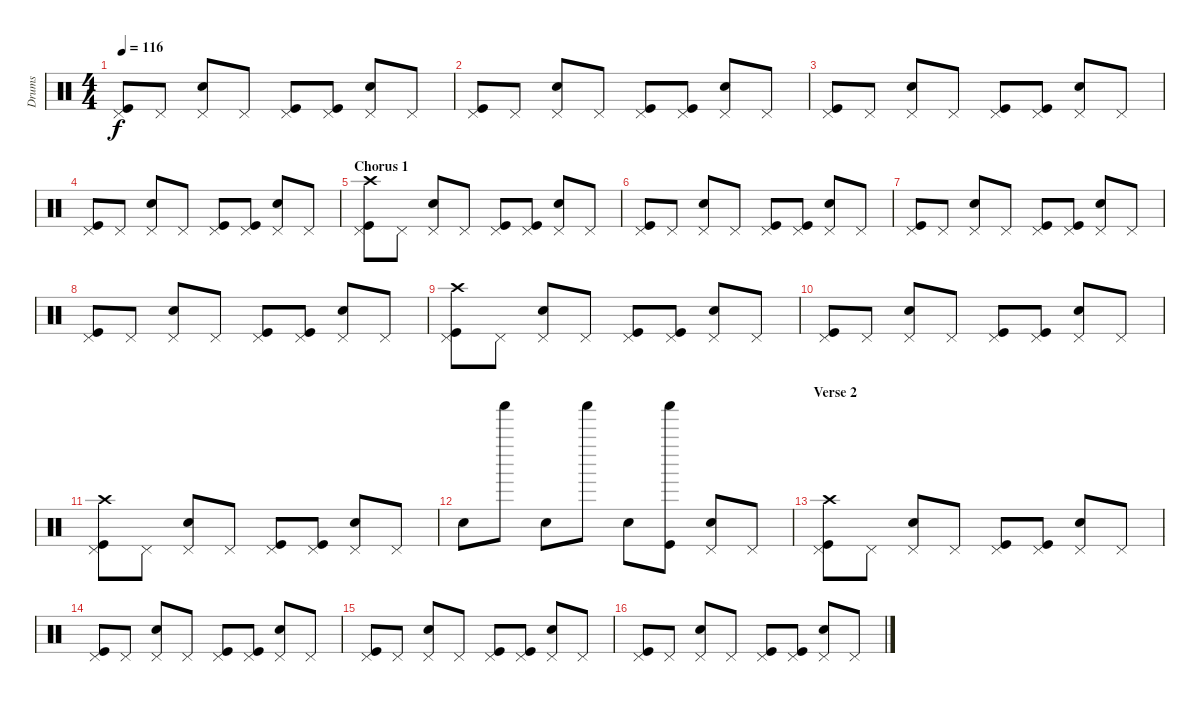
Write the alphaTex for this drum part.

\track ("Drums" "Drums") {instrument percussion}
\staff {score}
\articulation defaults
\ts (4 4)
\tempo 116
\clef neutral
\ks c
("Pedal Hi-Hat (hit)" "Kick (hit)").8{dy f} "Pedal Hi-Hat (hit)".8 ("Pedal Hi-Hat (hit)" "Snare (hit) 2").8 "Pedal Hi-Hat (hit)".8 ("Pedal Hi-Hat (hit)" "Kick (hit)").8 ("Pedal Hi-Hat (hit)" "Kick (hit)").8 ("Pedal Hi-Hat (hit)" "Snare (hit) 2").8 "Pedal Hi-Hat (hit)".8 |
("Pedal Hi-Hat (hit)" "Kick (hit)").8 "Pedal Hi-Hat (hit)".8 ("Pedal Hi-Hat (hit)" "Snare (hit) 2").8 "Pedal Hi-Hat (hit)".8 ("Pedal Hi-Hat (hit)" "Kick (hit)").8 ("Pedal Hi-Hat (hit)" "Kick (hit)").8 ("Pedal Hi-Hat (hit)" "Snare (hit) 2").8 "Pedal Hi-Hat (hit)".8 |
("Pedal Hi-Hat (hit)" "Kick (hit)").8 "Pedal Hi-Hat (hit)".8 ("Pedal Hi-Hat (hit)" "Snare (hit) 2").8 "Pedal Hi-Hat (hit)".8 ("Pedal Hi-Hat (hit)" "Kick (hit)").8 ("Pedal Hi-Hat (hit)" "Kick (hit)").8 ("Pedal Hi-Hat (hit)" "Snare (hit) 2").8 "Pedal Hi-Hat (hit)".8 |
("Pedal Hi-Hat (hit)" "Kick (hit)").8 "Pedal Hi-Hat (hit)".8 ("Pedal Hi-Hat (hit)" "Snare (hit) 2").8 "Pedal Hi-Hat (hit)".8 ("Pedal Hi-Hat (hit)" "Kick (hit)").8 ("Pedal Hi-Hat (hit)" "Kick (hit)").8 ("Pedal Hi-Hat (hit)" "Snare (hit) 2").8 "Pedal Hi-Hat (hit)".8 |
\section ("" "Chorus 1")
("Pedal Hi-Hat (hit)" "Crash high (hit)" "Kick (hit)").8 "Pedal Hi-Hat (hit)".8 ("Pedal Hi-Hat (hit)" "Snare (hit) 2").8 "Pedal Hi-Hat (hit)".8 ("Pedal Hi-Hat (hit)" "Kick (hit)").8 ("Pedal Hi-Hat (hit)" "Kick (hit)").8 ("Pedal Hi-Hat (hit)" "Snare (hit) 2").8 "Pedal Hi-Hat (hit)".8 |
("Pedal Hi-Hat (hit)" "Kick (hit)").8 "Pedal Hi-Hat (hit)".8 ("Pedal Hi-Hat (hit)" "Snare (hit) 2").8 "Pedal Hi-Hat (hit)".8 ("Pedal Hi-Hat (hit)" "Kick (hit)").8 ("Pedal Hi-Hat (hit)" "Kick (hit)").8 ("Pedal Hi-Hat (hit)" "Snare (hit) 2").8 "Pedal Hi-Hat (hit)".8 |
("Pedal Hi-Hat (hit)" "Kick (hit)").8 "Pedal Hi-Hat (hit)".8 ("Pedal Hi-Hat (hit)" "Snare (hit) 2").8 "Pedal Hi-Hat (hit)".8 ("Pedal Hi-Hat (hit)" "Kick (hit)").8 ("Pedal Hi-Hat (hit)" "Kick (hit)").8 ("Pedal Hi-Hat (hit)" "Snare (hit) 2").8 "Pedal Hi-Hat (hit)".8 |
("Pedal Hi-Hat (hit)" "Kick (hit)").8 "Pedal Hi-Hat (hit)".8 ("Pedal Hi-Hat (hit)" "Snare (hit) 2").8 "Pedal Hi-Hat (hit)".8 ("Pedal Hi-Hat (hit)" "Kick (hit)").8 ("Pedal Hi-Hat (hit)" "Kick (hit)").8 ("Pedal Hi-Hat (hit)" "Snare (hit) 2").8 "Pedal Hi-Hat (hit)".8 |
("Pedal Hi-Hat (hit)" "Crash high (hit)" "Kick (hit)").8 "Pedal Hi-Hat (hit)".8 ("Pedal Hi-Hat (hit)" "Snare (hit) 2").8 "Pedal Hi-Hat (hit)".8 ("Pedal Hi-Hat (hit)" "Kick (hit)").8 ("Pedal Hi-Hat (hit)" "Kick (hit)").8 ("Pedal Hi-Hat (hit)" "Snare (hit) 2").8 "Pedal Hi-Hat (hit)".8 |
("Pedal Hi-Hat (hit)" "Kick (hit)").8 "Pedal Hi-Hat (hit)".8 ("Pedal Hi-Hat (hit)" "Snare (hit) 2").8 "Pedal Hi-Hat (hit)".8 ("Pedal Hi-Hat (hit)" "Kick (hit)").8 ("Pedal Hi-Hat (hit)" "Kick (hit)").8 ("Pedal Hi-Hat (hit)" "Snare (hit) 2").8 "Pedal Hi-Hat (hit)".8 |
("Pedal Hi-Hat (hit)" "Crash high (hit)" "Kick (hit)").8 "Pedal Hi-Hat (hit)".8 ("Pedal Hi-Hat (hit)" "Snare (hit) 2").8 "Pedal Hi-Hat (hit)".8 ("Pedal Hi-Hat (hit)" "Kick (hit)").8 ("Pedal Hi-Hat (hit)" "Kick (hit)").8 ("Pedal Hi-Hat (hit)" "Snare (hit) 2").8 "Pedal Hi-Hat (hit)".8 |
"Snare (hit) 2".8 "Shaker (hit)".8 "Snare (hit) 2".8 "Shaker (hit)".8 "Snare (hit) 2".8 ("Shaker (hit)" "Kick (hit)").8 ("Pedal Hi-Hat (hit)" "Snare (hit) 2").8 "Pedal Hi-Hat (hit)".8 |
\section ("" "Verse 2")
("Pedal Hi-Hat (hit)" "Crash high (hit)" "Kick (hit)").8 "Pedal Hi-Hat (hit)".8 ("Pedal Hi-Hat (hit)" "Snare (hit) 2").8 "Pedal Hi-Hat (hit)".8 ("Pedal Hi-Hat (hit)" "Kick (hit)").8 ("Pedal Hi-Hat (hit)" "Kick (hit)").8 ("Pedal Hi-Hat (hit)" "Snare (hit) 2").8 "Pedal Hi-Hat (hit)".8 |
("Pedal Hi-Hat (hit)" "Kick (hit)").8 "Pedal Hi-Hat (hit)".8 ("Pedal Hi-Hat (hit)" "Snare (hit) 2").8 "Pedal Hi-Hat (hit)".8 ("Pedal Hi-Hat (hit)" "Kick (hit)").8 ("Pedal Hi-Hat (hit)" "Kick (hit)").8 ("Pedal Hi-Hat (hit)" "Snare (hit) 2").8 "Pedal Hi-Hat (hit)".8 |
("Pedal Hi-Hat (hit)" "Kick (hit)").8 "Pedal Hi-Hat (hit)".8 ("Pedal Hi-Hat (hit)" "Snare (hit) 2").8 "Pedal Hi-Hat (hit)".8 ("Pedal Hi-Hat (hit)" "Kick (hit)").8 ("Pedal Hi-Hat (hit)" "Kick (hit)").8 ("Pedal Hi-Hat (hit)" "Snare (hit) 2").8 "Pedal Hi-Hat (hit)".8 |
("Pedal Hi-Hat (hit)" "Kick (hit)").8 "Pedal Hi-Hat (hit)".8 ("Pedal Hi-Hat (hit)" "Snare (hit) 2").8 "Pedal Hi-Hat (hit)".8 ("Pedal Hi-Hat (hit)" "Kick (hit)").8 ("Pedal Hi-Hat (hit)" "Kick (hit)").8 ("Pedal Hi-Hat (hit)" "Snare (hit) 2").8 "Pedal Hi-Hat (hit)".8
